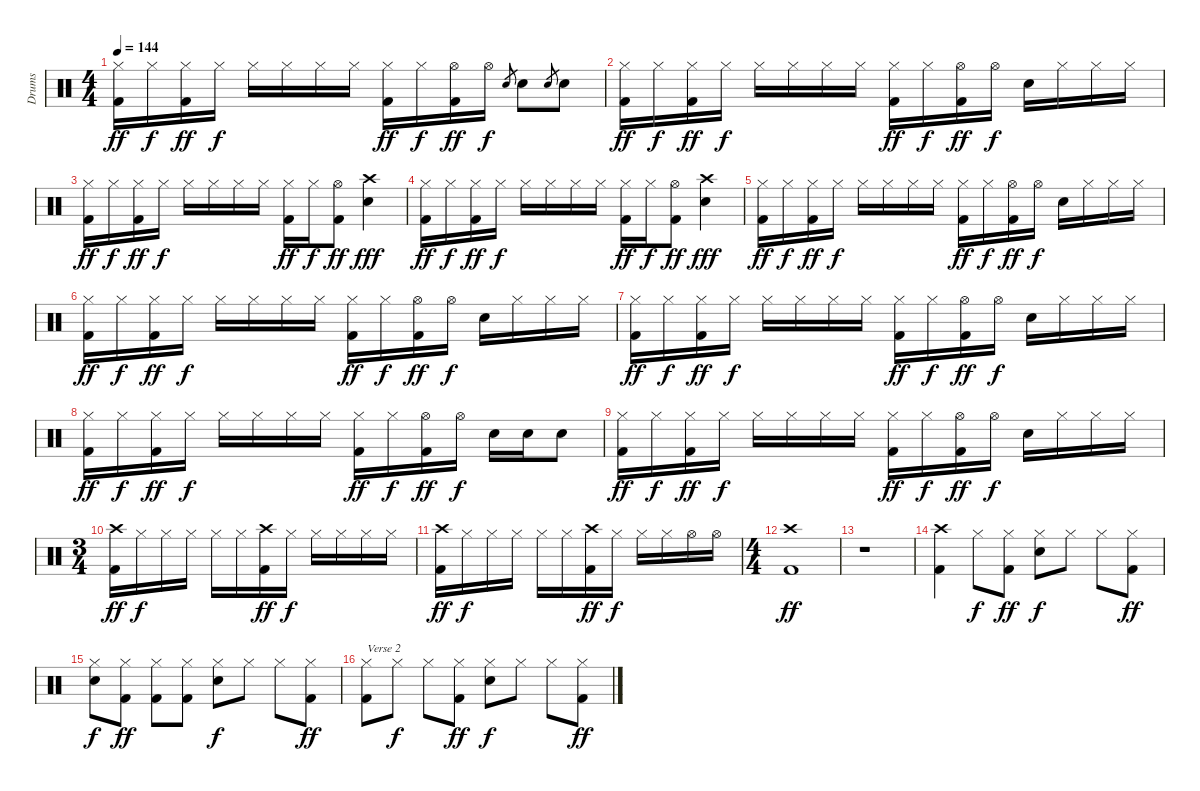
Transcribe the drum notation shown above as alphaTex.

\track ("Drums" "Drums") {instrument percussion}
\staff {score}
\articulation defaults
\ts (4 4)
\tempo 144
\clef neutral
\ks c
("Hi-Hat (closed)" "Kick (hit) 2").16{dy ff} "Hi-Hat (closed)".16{dy f} ("Hi-Hat (closed)" "Kick (hit) 2").16{dy ff} "Hi-Hat (closed)".16{dy f} "Hi-Hat (closed)".16 "Hi-Hat (closed)".16 "Hi-Hat (closed)".16 "Hi-Hat (closed)".16 ("Hi-Hat (closed)" "Kick (hit) 2").16{dy ff} "Hi-Hat (closed)".16{dy f} ("Hi-Hat (open)" "Kick (hit) 2").16{dy ff} "Hi-Hat (open)".16{dy f} "Snare (hit) 2".8{gr} "Snare (hit) 2".8 "Snare (hit) 2".8{gr} "Snare (hit) 2".8 |
("Hi-Hat (closed)" "Kick (hit) 2").16{dy ff} "Hi-Hat (closed)".16{dy f} ("Hi-Hat (closed)" "Kick (hit) 2").16{dy ff} "Hi-Hat (closed)".16{dy f} "Hi-Hat (closed)".16 "Hi-Hat (closed)".16 "Hi-Hat (closed)".16 "Hi-Hat (closed)".16 ("Hi-Hat (closed)" "Kick (hit) 2").16{dy ff} "Hi-Hat (closed)".16{dy f} ("Hi-Hat (open)" "Kick (hit) 2").16{dy ff} "Hi-Hat (open)".16{dy f} "Snare (hit) 2".16 "Hi-Hat (closed)".16 "Hi-Hat (closed)".16 "Hi-Hat (closed)".16 |
("Hi-Hat (closed)" "Kick (hit) 2").16{dy ff} "Hi-Hat (closed)".16{dy f} ("Hi-Hat (closed)" "Kick (hit) 2").16{dy ff} "Hi-Hat (closed)".16{dy f} "Hi-Hat (closed)".16 "Hi-Hat (closed)".16 "Hi-Hat (closed)".16 "Hi-Hat (closed)".16 ("Hi-Hat (closed)" "Kick (hit) 2").16{dy ff} "Hi-Hat (closed)".16{dy f} ("Hi-Hat (open)" "Kick (hit) 2").8{dy ff} ("Crash high (hit)" "Snare (hit) 2").4{dy fff} |
("Hi-Hat (closed)" "Kick (hit) 2").16{dy ff} "Hi-Hat (closed)".16{dy f} ("Hi-Hat (closed)" "Kick (hit) 2").16{dy ff} "Hi-Hat (closed)".16{dy f} "Hi-Hat (closed)".16 "Hi-Hat (closed)".16 "Hi-Hat (closed)".16 "Hi-Hat (closed)".16 ("Hi-Hat (closed)" "Kick (hit) 2").16{dy ff} "Hi-Hat (closed)".16{dy f} ("Hi-Hat (open)" "Kick (hit) 2").8{dy ff} ("Crash high (hit)" "Snare (hit) 2").4{dy fff} |
("Hi-Hat (closed)" "Kick (hit) 2").16{dy ff} "Hi-Hat (closed)".16{dy f} ("Hi-Hat (closed)" "Kick (hit) 2").16{dy ff} "Hi-Hat (closed)".16{dy f} "Hi-Hat (closed)".16 "Hi-Hat (closed)".16 "Hi-Hat (closed)".16 "Hi-Hat (closed)".16 ("Hi-Hat (closed)" "Kick (hit) 2").16{dy ff} "Hi-Hat (closed)".16{dy f} ("Hi-Hat (open)" "Kick (hit) 2").16{dy ff} "Hi-Hat (open)".16{dy f} "Snare (hit) 2".16 "Hi-Hat (closed)".16 "Hi-Hat (closed)".16 "Hi-Hat (closed)".16 |
("Hi-Hat (closed)" "Kick (hit) 2").16{dy ff} "Hi-Hat (closed)".16{dy f} ("Hi-Hat (closed)" "Kick (hit) 2").16{dy ff} "Hi-Hat (closed)".16{dy f} "Hi-Hat (closed)".16 "Hi-Hat (closed)".16 "Hi-Hat (closed)".16 "Hi-Hat (closed)".16 ("Hi-Hat (closed)" "Kick (hit) 2").16{dy ff} "Hi-Hat (closed)".16{dy f} ("Hi-Hat (open)" "Kick (hit) 2").16{dy ff} "Hi-Hat (open)".16{dy f} "Snare (hit) 2".16 "Hi-Hat (closed)".16 "Hi-Hat (closed)".16 "Hi-Hat (closed)".16 |
("Hi-Hat (closed)" "Kick (hit) 2").16{dy ff} "Hi-Hat (closed)".16{dy f} ("Hi-Hat (closed)" "Kick (hit) 2").16{dy ff} "Hi-Hat (closed)".16{dy f} "Hi-Hat (closed)".16 "Hi-Hat (closed)".16 "Hi-Hat (closed)".16 "Hi-Hat (closed)".16 ("Hi-Hat (closed)" "Kick (hit) 2").16{dy ff} "Hi-Hat (closed)".16{dy f} ("Hi-Hat (open)" "Kick (hit) 2").16{dy ff} "Hi-Hat (open)".16{dy f} "Snare (hit) 2".16 "Hi-Hat (closed)".16 "Hi-Hat (closed)".16 "Hi-Hat (closed)".16 |
("Hi-Hat (closed)" "Kick (hit) 2").16{dy ff} "Hi-Hat (closed)".16{dy f} ("Hi-Hat (closed)" "Kick (hit) 2").16{dy ff} "Hi-Hat (closed)".16{dy f} "Hi-Hat (closed)".16 "Hi-Hat (closed)".16 "Hi-Hat (closed)".16 "Hi-Hat (closed)".16 ("Hi-Hat (closed)" "Kick (hit) 2").16{dy ff} "Hi-Hat (closed)".16{dy f} ("Hi-Hat (open)" "Kick (hit) 2").16{dy ff} "Hi-Hat (open)".16{dy f} "Snare (hit) 2".16 "Snare (hit) 2".16 "Snare (hit) 2".8 |
("Hi-Hat (closed)" "Kick (hit) 2").16{dy ff} "Hi-Hat (closed)".16{dy f} ("Hi-Hat (closed)" "Kick (hit) 2").16{dy ff} "Hi-Hat (closed)".16{dy f} "Hi-Hat (closed)".16 "Hi-Hat (closed)".16 "Hi-Hat (closed)".16 "Hi-Hat (closed)".16 ("Hi-Hat (closed)" "Kick (hit) 2").16{dy ff} "Hi-Hat (closed)".16{dy f} ("Hi-Hat (open)" "Kick (hit) 2").16{dy ff} "Hi-Hat (open)".16{dy f} "Snare (hit) 2".16 "Hi-Hat (closed)".16 "Hi-Hat (closed)".16 "Hi-Hat (closed)".16 |
\ts (3 4)
("Crash high (hit)" "Kick (hit) 2").16{dy ff} "Hi-Hat (closed)".16{dy f} "Hi-Hat (closed)".16 "Hi-Hat (closed)".16 "Hi-Hat (closed)".16 "Hi-Hat (closed)".16 ("Crash high (hit)" "Kick (hit) 2").16{dy ff} "Hi-Hat (closed)".16{dy f} "Hi-Hat (closed)".16 "Hi-Hat (closed)".16 "Hi-Hat (closed)".16 "Hi-Hat (closed)".16 |
("Crash high (hit)" "Kick (hit) 2").16{dy ff} "Hi-Hat (closed)".16{dy f} "Hi-Hat (closed)".16 "Hi-Hat (closed)".16 "Hi-Hat (closed)".16 "Hi-Hat (closed)".16 ("Crash high (hit)" "Kick (hit) 2").16{dy ff} "Hi-Hat (closed)".16{dy f} "Hi-Hat (closed)".16 "Hi-Hat (closed)".16 "Hi-Hat (open)".16 "Hi-Hat (open)".16 |
\ts (4 4)
("Crash high (hit)" "Kick (hit) 2").1{dy ff} |
r.1 |
("Crash high (hit)" "Kick (hit) 2").4 "Hi-Hat (closed)".8{dy f} ("Hi-Hat (closed)" "Kick (hit) 2").8{dy ff} ("Hi-Hat (closed)" "Snare (hit) 2").8{dy f} "Hi-Hat (closed)".8 "Hi-Hat (closed)".8 ("Hi-Hat (closed)" "Kick (hit) 2").8{dy ff} |
("Hi-Hat (closed)" "Snare (hit) 2").8{dy f} ("Hi-Hat (closed)" "Kick (hit) 2").8{dy ff} ("Hi-Hat (closed)" "Kick (hit) 2").8 ("Hi-Hat (closed)" "Kick (hit) 2").8 ("Hi-Hat (closed)" "Snare (hit) 2").8{dy f} "Hi-Hat (closed)".8 "Hi-Hat (closed)".8 ("Hi-Hat (closed)" "Kick (hit) 2").8{dy ff} |
("Hi-Hat (closed)" "Kick (hit) 2").8{txt "Verse 2"} "Hi-Hat (closed)".8{dy f} "Hi-Hat (closed)".8 ("Hi-Hat (closed)" "Kick (hit) 2").8{dy ff} ("Hi-Hat (closed)" "Snare (hit) 2").8{dy f} "Hi-Hat (closed)".8 "Hi-Hat (closed)".8 ("Hi-Hat (closed)" "Kick (hit) 2").8{dy ff}
